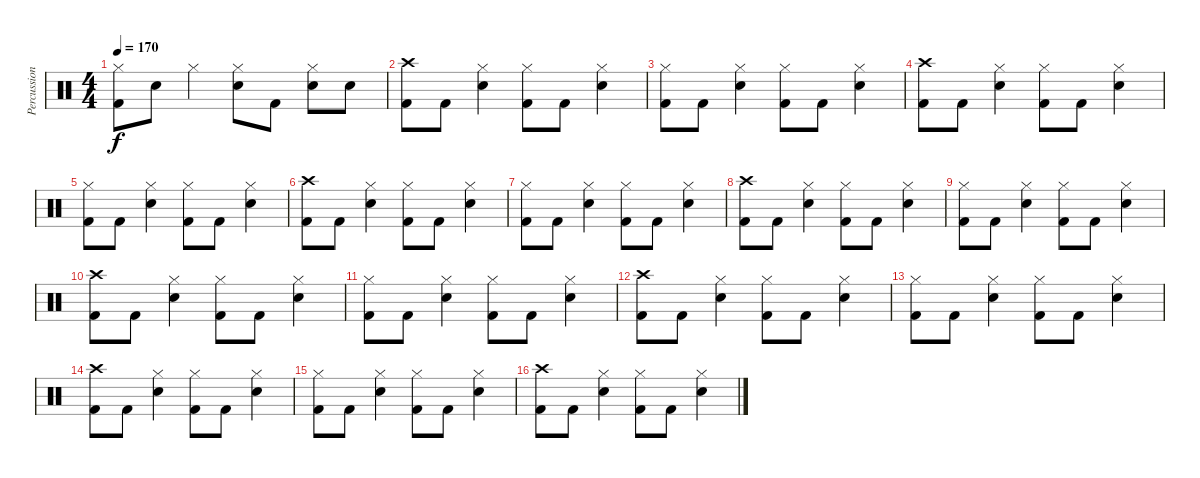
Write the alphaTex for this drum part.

\track ("Percussion" "Percussion") {instrument percussion}
\staff {score}
\articulation defaults
\ts (4 4)
\tempo 170
\clef neutral
\ks c
("Hi-Hat (closed)" "Kick (hit) 2").8{dy f} "Electric Snare (hit)".8 "Hi-Hat (closed)".4 ("Hi-Hat (closed)" "Electric Snare (hit)").8 "Kick (hit) 2".8 ("Hi-Hat (closed)" "Electric Snare (hit)").8 "Electric Snare (hit)".8 |
("Crash high (hit)" "Kick (hit) 2").8 "Kick (hit) 2".8 ("Hi-Hat (closed)" "Electric Snare (hit)").4 ("Hi-Hat (closed)" "Kick (hit) 2").8 "Kick (hit) 2".8 ("Hi-Hat (closed)" "Electric Snare (hit)").4 |
("Hi-Hat (closed)" "Kick (hit) 2").8 "Kick (hit) 2".8 ("Hi-Hat (closed)" "Electric Snare (hit)").4 ("Hi-Hat (closed)" "Kick (hit) 2").8 "Kick (hit) 2".8 ("Hi-Hat (closed)" "Electric Snare (hit)").4 |
("Crash high (hit)" "Kick (hit) 2").8 "Kick (hit) 2".8 ("Hi-Hat (closed)" "Electric Snare (hit)").4 ("Hi-Hat (closed)" "Kick (hit) 2").8 "Kick (hit) 2".8 ("Hi-Hat (closed)" "Electric Snare (hit)").4 |
("Hi-Hat (closed)" "Kick (hit) 2").8 "Kick (hit) 2".8 ("Hi-Hat (closed)" "Electric Snare (hit)").4 ("Hi-Hat (closed)" "Kick (hit) 2").8 "Kick (hit) 2".8 ("Hi-Hat (closed)" "Electric Snare (hit)").4 |
("Crash high (hit)" "Kick (hit) 2").8 "Kick (hit) 2".8 ("Hi-Hat (closed)" "Electric Snare (hit)").4 ("Hi-Hat (closed)" "Kick (hit) 2").8 "Kick (hit) 2".8 ("Hi-Hat (closed)" "Electric Snare (hit)").4 |
("Hi-Hat (closed)" "Kick (hit) 2").8 "Kick (hit) 2".8 ("Hi-Hat (closed)" "Electric Snare (hit)").4 ("Hi-Hat (closed)" "Kick (hit) 2").8 "Kick (hit) 2".8 ("Hi-Hat (closed)" "Electric Snare (hit)").4 |
("Crash high (hit)" "Kick (hit) 2").8 "Kick (hit) 2".8 ("Hi-Hat (closed)" "Electric Snare (hit)").4 ("Hi-Hat (closed)" "Kick (hit) 2").8 "Kick (hit) 2".8 ("Hi-Hat (closed)" "Electric Snare (hit)").4 |
("Hi-Hat (closed)" "Kick (hit) 2").8 "Kick (hit) 2".8 ("Hi-Hat (closed)" "Electric Snare (hit)").4 ("Hi-Hat (closed)" "Kick (hit) 2").8 "Kick (hit) 2".8 ("Hi-Hat (closed)" "Electric Snare (hit)").4 |
("Crash high (hit)" "Kick (hit) 2").8 "Kick (hit) 2".8 ("Hi-Hat (closed)" "Electric Snare (hit)").4 ("Hi-Hat (closed)" "Kick (hit) 2").8 "Kick (hit) 2".8 ("Hi-Hat (closed)" "Electric Snare (hit)").4 |
("Hi-Hat (closed)" "Kick (hit) 2").8 "Kick (hit) 2".8 ("Hi-Hat (closed)" "Electric Snare (hit)").4 ("Hi-Hat (closed)" "Kick (hit) 2").8 "Kick (hit) 2".8 ("Hi-Hat (closed)" "Electric Snare (hit)").4 |
("Crash high (hit)" "Kick (hit) 2").8 "Kick (hit) 2".8 ("Hi-Hat (closed)" "Electric Snare (hit)").4 ("Hi-Hat (closed)" "Kick (hit) 2").8 "Kick (hit) 2".8 ("Hi-Hat (closed)" "Electric Snare (hit)").4 |
("Hi-Hat (closed)" "Kick (hit) 2").8 "Kick (hit) 2".8 ("Hi-Hat (closed)" "Electric Snare (hit)").4 ("Hi-Hat (closed)" "Kick (hit) 2").8 "Kick (hit) 2".8 ("Hi-Hat (closed)" "Electric Snare (hit)").4 |
("Crash high (hit)" "Kick (hit) 2").8{volume 12} "Kick (hit) 2".8 ("Hi-Hat (closed)" "Electric Snare (hit)").4 ("Hi-Hat (closed)" "Kick (hit) 2").8 "Kick (hit) 2".8 ("Hi-Hat (closed)" "Electric Snare (hit)").4 |
("Hi-Hat (closed)" "Kick (hit) 2").8 "Kick (hit) 2".8 ("Hi-Hat (closed)" "Electric Snare (hit)").4 ("Hi-Hat (closed)" "Kick (hit) 2").8 "Kick (hit) 2".8 ("Hi-Hat (closed)" "Electric Snare (hit)").4 |
("Crash high (hit)" "Kick (hit) 2").8{volume 8} "Kick (hit) 2".8 ("Hi-Hat (closed)" "Electric Snare (hit)").4 ("Hi-Hat (closed)" "Kick (hit) 2").8 "Kick (hit) 2".8 ("Hi-Hat (closed)" "Electric Snare (hit)").4
